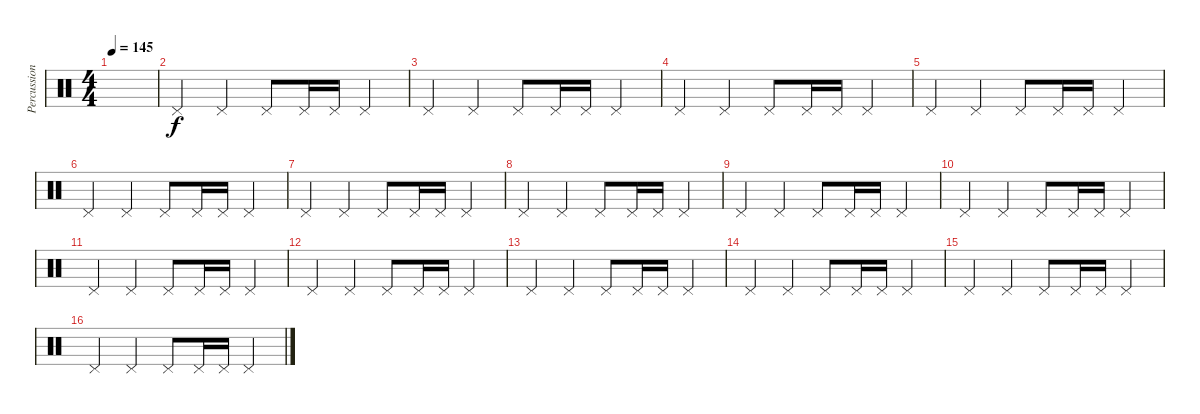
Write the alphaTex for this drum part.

\track ("Percussion" "Percussion") {instrument percussion}
\staff {score}
\articulation defaults
\ts (4 4)
\tempo 145
\clef neutral
\ks c
|
"Pedal Hi-Hat (hit)".4 "Pedal Hi-Hat (hit)".4 "Pedal Hi-Hat (hit)".8 "Pedal Hi-Hat (hit)".16 "Pedal Hi-Hat (hit)".16 "Pedal Hi-Hat (hit)".4 |
"Pedal Hi-Hat (hit)".4 "Pedal Hi-Hat (hit)".4 "Pedal Hi-Hat (hit)".8 "Pedal Hi-Hat (hit)".16 "Pedal Hi-Hat (hit)".16 "Pedal Hi-Hat (hit)".4 |
"Pedal Hi-Hat (hit)".4 "Pedal Hi-Hat (hit)".4 "Pedal Hi-Hat (hit)".8 "Pedal Hi-Hat (hit)".16 "Pedal Hi-Hat (hit)".16 "Pedal Hi-Hat (hit)".4 |
"Pedal Hi-Hat (hit)".4 "Pedal Hi-Hat (hit)".4 "Pedal Hi-Hat (hit)".8 "Pedal Hi-Hat (hit)".16 "Pedal Hi-Hat (hit)".16 "Pedal Hi-Hat (hit)".4 |
"Pedal Hi-Hat (hit)".4 "Pedal Hi-Hat (hit)".4 "Pedal Hi-Hat (hit)".8 "Pedal Hi-Hat (hit)".16 "Pedal Hi-Hat (hit)".16 "Pedal Hi-Hat (hit)".4 |
"Pedal Hi-Hat (hit)".4 "Pedal Hi-Hat (hit)".4 "Pedal Hi-Hat (hit)".8 "Pedal Hi-Hat (hit)".16 "Pedal Hi-Hat (hit)".16 "Pedal Hi-Hat (hit)".4 |
"Pedal Hi-Hat (hit)".4 "Pedal Hi-Hat (hit)".4 "Pedal Hi-Hat (hit)".8 "Pedal Hi-Hat (hit)".16 "Pedal Hi-Hat (hit)".16 "Pedal Hi-Hat (hit)".4 |
"Pedal Hi-Hat (hit)".4 "Pedal Hi-Hat (hit)".4 "Pedal Hi-Hat (hit)".8 "Pedal Hi-Hat (hit)".16 "Pedal Hi-Hat (hit)".16 "Pedal Hi-Hat (hit)".4 |
"Pedal Hi-Hat (hit)".4 "Pedal Hi-Hat (hit)".4 "Pedal Hi-Hat (hit)".8 "Pedal Hi-Hat (hit)".16 "Pedal Hi-Hat (hit)".16 "Pedal Hi-Hat (hit)".4 |
"Pedal Hi-Hat (hit)".4 "Pedal Hi-Hat (hit)".4 "Pedal Hi-Hat (hit)".8 "Pedal Hi-Hat (hit)".16 "Pedal Hi-Hat (hit)".16 "Pedal Hi-Hat (hit)".4 |
"Pedal Hi-Hat (hit)".4 "Pedal Hi-Hat (hit)".4 "Pedal Hi-Hat (hit)".8 "Pedal Hi-Hat (hit)".16 "Pedal Hi-Hat (hit)".16 "Pedal Hi-Hat (hit)".4 |
"Pedal Hi-Hat (hit)".4 "Pedal Hi-Hat (hit)".4 "Pedal Hi-Hat (hit)".8 "Pedal Hi-Hat (hit)".16 "Pedal Hi-Hat (hit)".16 "Pedal Hi-Hat (hit)".4 |
"Pedal Hi-Hat (hit)".4 "Pedal Hi-Hat (hit)".4 "Pedal Hi-Hat (hit)".8 "Pedal Hi-Hat (hit)".16 "Pedal Hi-Hat (hit)".16 "Pedal Hi-Hat (hit)".4 |
"Pedal Hi-Hat (hit)".4 "Pedal Hi-Hat (hit)".4 "Pedal Hi-Hat (hit)".8 "Pedal Hi-Hat (hit)".16 "Pedal Hi-Hat (hit)".16 "Pedal Hi-Hat (hit)".4 |
"Pedal Hi-Hat (hit)".4 "Pedal Hi-Hat (hit)".4 "Pedal Hi-Hat (hit)".8 "Pedal Hi-Hat (hit)".16 "Pedal Hi-Hat (hit)".16 "Pedal Hi-Hat (hit)".4
